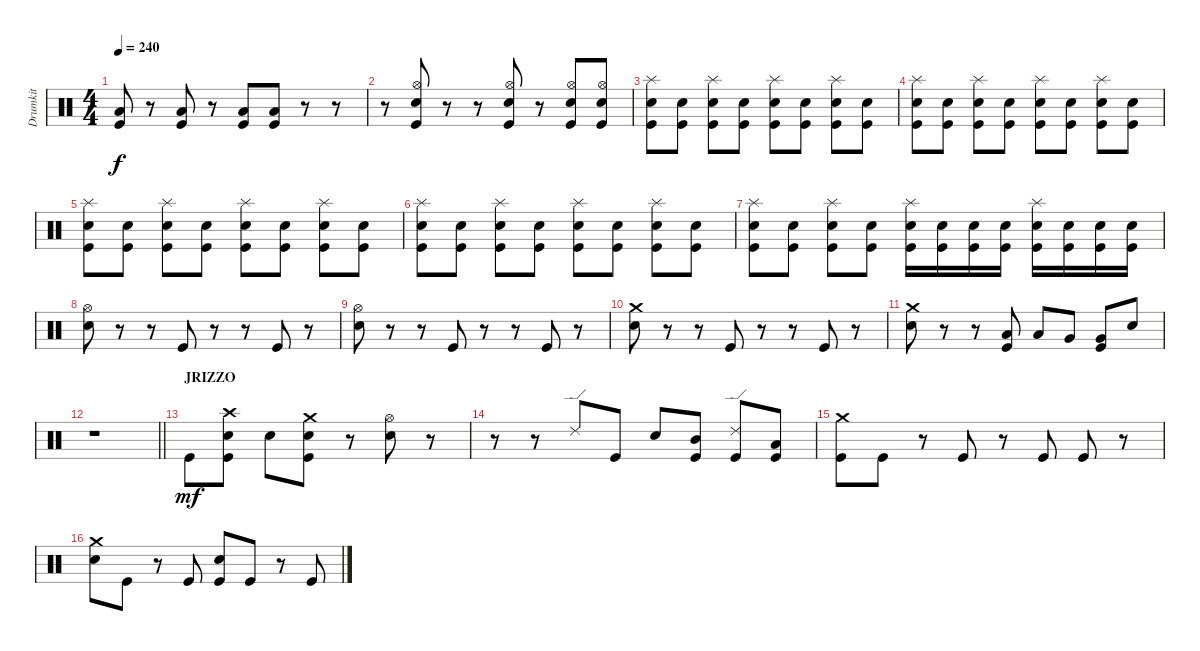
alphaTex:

\track ("Drumkit" "Drumkit") {instrument percussion}
\staff {score}
\articulation defaults
\ts (4 4)
\tempo 240
\clef neutral
\ks c
("Low Floor Tom (hit)" "Kick (hit)").8{dy f} r.8 ("Low Floor Tom (hit)" "Kick (hit)").8 r.8 ("Low Floor Tom (hit)" "Kick (hit)").8 ("Low Floor Tom (hit)" "Kick (hit)").8 r.8 r.8 |
r.8 ("Hi-Hat (open)" "Snare (hit) 2" "Kick (hit)").8 r.8 r.8 ("Hi-Hat (open)" "Snare (hit) 2" "Kick (hit)").8 r.8 ("Hi-Hat (open)" "Snare (hit) 2" "Kick (hit)").8 ("Hi-Hat (open)" "Snare (hit) 2" "Kick (hit)").8 |
("Splash (hit)" "Snare (hit) 2" "Kick (hit)").8 ("Snare (hit) 2" "Kick (hit)").8 ("Splash (hit)" "Snare (hit) 2" "Kick (hit)").8 ("Snare (hit) 2" "Kick (hit)").8 ("Splash (hit)" "Snare (hit) 2" "Kick (hit)").8 ("Snare (hit) 2" "Kick (hit)").8 ("Splash (hit)" "Snare (hit) 2" "Kick (hit)").8 ("Snare (hit) 2" "Kick (hit)").8 |
("Splash (hit)" "Snare (hit) 2" "Kick (hit)").8 ("Snare (hit) 2" "Kick (hit)").8 ("Splash (hit)" "Snare (hit) 2" "Kick (hit)").8 ("Snare (hit) 2" "Kick (hit)").8 ("Splash (hit)" "Snare (hit) 2" "Kick (hit)").8 ("Snare (hit) 2" "Kick (hit)").8 ("Splash (hit)" "Snare (hit) 2" "Kick (hit)").8 ("Snare (hit) 2" "Kick (hit)").8 |
("Splash (hit)" "Snare (hit) 2" "Kick (hit)").8 ("Snare (hit) 2" "Kick (hit)").8 ("Splash (hit)" "Snare (hit) 2" "Kick (hit)").8 ("Snare (hit) 2" "Kick (hit)").8 ("Splash (hit)" "Snare (hit) 2" "Kick (hit)").8 ("Snare (hit) 2" "Kick (hit)").8 ("Splash (hit)" "Snare (hit) 2" "Kick (hit)").8 ("Snare (hit) 2" "Kick (hit)").8 |
("Splash (hit)" "Snare (hit) 2" "Kick (hit)").8 ("Snare (hit) 2" "Kick (hit)").8 ("Splash (hit)" "Snare (hit) 2" "Kick (hit)").8 ("Snare (hit) 2" "Kick (hit)").8 ("Splash (hit)" "Snare (hit) 2" "Kick (hit)").8 ("Snare (hit) 2" "Kick (hit)").8 ("Splash (hit)" "Snare (hit) 2" "Kick (hit)").8 ("Snare (hit) 2" "Kick (hit)").8 |
("Splash (hit)" "Snare (hit) 2" "Kick (hit)").8 ("Snare (hit) 2" "Kick (hit)").8 ("Splash (hit)" "Snare (hit) 2" "Kick (hit)").8 ("Snare (hit) 2" "Kick (hit)").8 ("Splash (hit)" "Snare (hit) 2" "Kick (hit)").16 ("Snare (hit) 2" "Kick (hit)").16 ("Snare (hit) 2" "Kick (hit)").16 ("Snare (hit) 2" "Kick (hit)").16 ("Splash (hit)" "Snare (hit) 2" "Kick (hit)").16 ("Snare (hit) 2" "Kick (hit)").16 ("Snare (hit) 2" "Kick (hit)").16 ("Snare (hit) 2" "Kick (hit)").16 |
("Hi-Hat (open)" "Snare (hit) 2").8 r.8 r.8 "Kick (hit)".8 r.8 r.8 "Kick (hit)".8 r.8 |
("Hi-Hat (open)" "Snare (hit) 2").8 r.8 r.8 "Kick (hit)".8 r.8 r.8 "Kick (hit)".8 r.8 |
("Crash medium (hit)" "Snare (hit) 2").8 r.8 r.8 "Kick (hit)".8 r.8 r.8 "Kick (hit)".8 r.8 |
("Crash medium (hit)" "Snare (hit) 2").8 r.8 r.8 ("Low Tom (hit)" "Kick (hit)").8 "Low Tom (hit)".8 "Very Low Tom (hit)".8 ("Very Low Tom (hit)" "Kick (hit)").8 "Snare (hit) 2".8 |
\barLineRight lightlight
r.1 |
\section ("" "JRIZZO")
"Kick (hit)".8{dy mf} ("Snare (hit) 2" "Crash high (hit)" "Kick (hit)").8 "Snare (hit) 2".8 ("Snare (hit) 2" "Crash medium (hit)" "Kick (hit)").8 r.8 ("Hi-Hat (open)" "Snare (hit) 2").8 r.8 |
r.8 r.8 "Ride (edge) 2".8 "Kick (hit)".8 "Snare (hit) 2".8 ("Kick (hit)" "Mid Tom (hit)").8 ("Kick (hit)" "Ride (edge) 2").8 ("Kick (hit)" "Low Tom (hit)").8 |
("Kick (hit)" "Crash medium (hit)").8 "Kick (hit)".8 r.8 "Kick (hit)".8 r.8 "Kick (hit)".8 "Kick (hit)".8 r.8 |
("Snare (hit) 2" "Crash medium (hit)").8 "Kick (hit)".8 r.8 "Kick (hit)".8 ("Snare (hit) 2" "Kick (hit)").8 "Kick (hit)".8 r.8 "Kick (hit)".8
